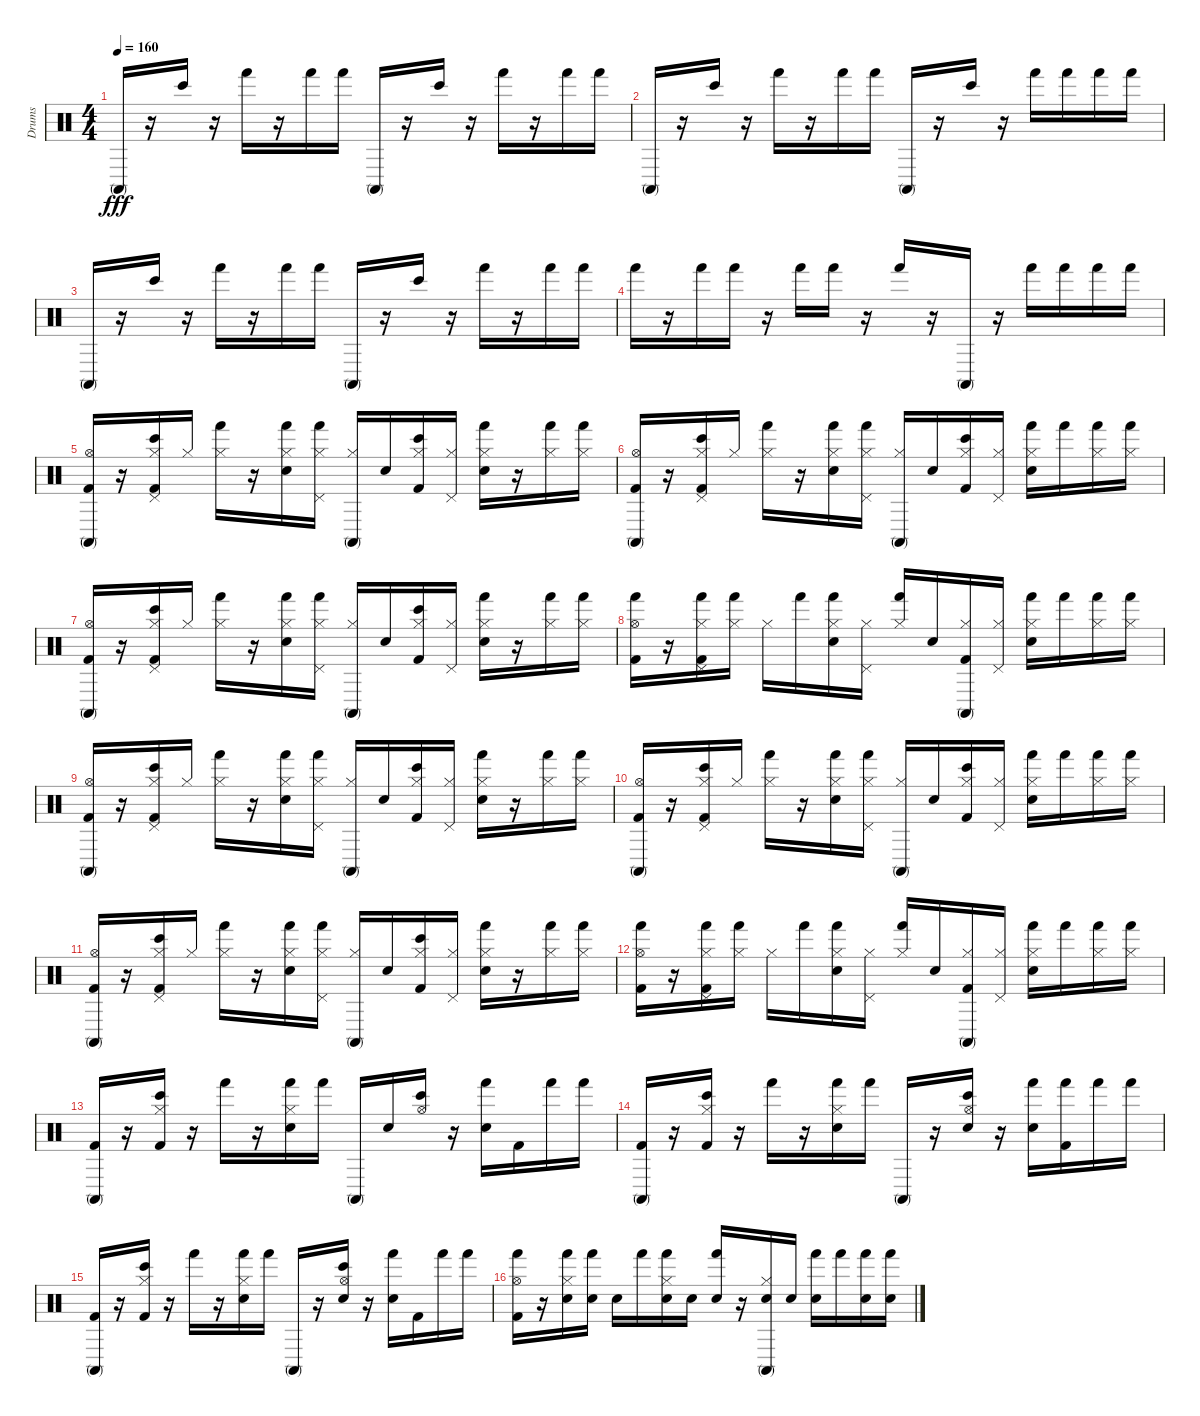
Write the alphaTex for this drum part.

\track ("Drums" "Drums") {instrument percussion}
\staff {score}
\articulation defaults
\ts (4 4)
\tempo 160
\clef neutral
\ks c "Conga high (mute)".16{dy fff}
r.16 "Bongo High (hit)".16 r.16 "Hand (hit)".16 r.16 "Hand (hit)".16 "Hand (hit)".16 "Conga high (mute)".16 r.16 "Bongo High (hit)".16 r.16 "Hand (hit)".16 r.16 "Hand (hit)".16 "Hand (hit)".16 |
"Conga high (mute)".16 r.16 "Bongo High (hit)".16 r.16 "Hand (hit)".16 r.16 "Hand (hit)".16 "Hand (hit)".16 "Conga high (mute)".16 r.16 "Bongo High (hit)".16 r.16 "Hand (hit)".16 "Hand (hit)".16 "Hand (hit)".16 "Hand (hit)".16 |
"Conga high (mute)".16 r.16 "Bongo High (hit)".16 r.16 "Hand (hit)".16 r.16 "Hand (hit)".16 "Hand (hit)".16 "Conga high (mute)".16 r.16 "Bongo High (hit)".16 r.16 "Hand (hit)".16 r.16 "Hand (hit)".16 "Hand (hit)".16 |
"Hand (hit)".16 r.16 "Hand (hit)".16 "Hand (hit)".16 r.16 "Hand (hit)".16 "Hand (hit)".16 r.16 "Hand (hit)".16 r.16 "Conga high (mute)".16 r.16 "Hand (hit)".16 "Hand (hit)".16 "Hand (hit)".16 "Hand (hit)".16 |
("Kick (hit) 2" "Conga high (mute)" "Hi-Hat (open)").16 r.16 ("Kick (hit) 2" "Pedal Hi-Hat (hit)" "Hi-Hat (closed)" "Bongo High (hit)").16 "Hi-Hat (closed)".16 ("Hand (hit)" "Hi-Hat (closed)").16 r.16 ("Electric Snare (hit)" "Hi-Hat (closed)" "Hand (hit)").16 ("Hi-Hat (closed)" "Pedal Hi-Hat (hit)" "Hand (hit)").16 ("Hi-Hat (closed)" "Conga high (mute)").16 "Electric Snare (hit)".16 ("Hi-Hat (closed)" "Kick (hit) 2" "Bongo High (hit)").16 ("Hi-Hat (closed)" "Pedal Hi-Hat (hit)").16 ("Hand (hit)" "Electric Snare (hit)" "Hi-Hat (closed)").16 r.16 ("Hand (hit)" "Hi-Hat (closed)").16 ("Hi-Hat (closed)" "Hand (hit)").16 |
("Conga high (mute)" "Kick (hit) 2" "Hi-Hat (open)").16 r.16 ("Hi-Hat (closed)" "Bongo High (hit)" "Kick (hit) 2" "Pedal Hi-Hat (hit)").16 "Hi-Hat (closed)".16 ("Hand (hit)" "Hi-Hat (closed)").16 r.16 ("Hi-Hat (closed)" "Hand (hit)" "Electric Snare (hit)").16 ("Pedal Hi-Hat (hit)" "Hi-Hat (closed)" "Hand (hit)").16 ("Hi-Hat (closed)" "Conga high (mute)").16 "Electric Snare (hit)".16 ("Kick (hit) 2" "Hi-Hat (closed)" "Bongo High (hit)").16 ("Hi-Hat (closed)" "Pedal Hi-Hat (hit)").16 ("Electric Snare (hit)" "Hand (hit)" "Hi-Hat (closed)").16 "Hand (hit)".16 ("Hand (hit)" "Hi-Hat (closed)").16 ("Hi-Hat (closed)" "Hand (hit)").16 |
("Hi-Hat (open)" "Conga high (mute)" "Kick (hit) 2").16 r.16 ("Bongo High (hit)" "Hi-Hat (closed)" "Pedal Hi-Hat (hit)" "Kick (hit) 2").16 "Hi-Hat (closed)".16 ("Hi-Hat (closed)" "Hand (hit)").16 r.16 ("Hand (hit)" "Electric Snare (hit)" "Hi-Hat (closed)").16 ("Pedal Hi-Hat (hit)" "Hi-Hat (closed)" "Hand (hit)").16 ("Conga high (mute)" "Hi-Hat (closed)").16 "Electric Snare (hit)".16 ("Bongo High (hit)" "Hi-Hat (closed)" "Kick (hit) 2").16 ("Hi-Hat (closed)" "Pedal Hi-Hat (hit)").16 ("Hand (hit)" "Hi-Hat (closed)" "Electric Snare (hit)").16 r.16 ("Hand (hit)" "Hi-Hat (closed)").16 ("Hi-Hat (closed)" "Hand (hit)").16 |
("Kick (hit) 2" "Hi-Hat (open)" "Hand (hit)").16 r.16 ("Pedal Hi-Hat (hit)" "Hand (hit)" "Kick (hit) 2" "Hi-Hat (closed)").16 ("Hand (hit)" "Hi-Hat (closed)").16 "Hi-Hat (closed)".16 "Hand (hit)".16 ("Electric Snare (hit)" "Hand (hit)" "Hi-Hat (closed)").16 ("Hi-Hat (closed)" "Pedal Hi-Hat (hit)").16 ("Hi-Hat (closed)" "Hand (hit)").16 "Electric Snare (hit)".16 ("Conga high (mute)" "Kick (hit) 2" "Hi-Hat (closed)").16 ("Hi-Hat (closed)" "Pedal Hi-Hat (hit)").16 ("Hi-Hat (closed)" "Electric Snare (hit)" "Hand (hit)").16 "Hand (hit)".16 ("Hand (hit)" "Hi-Hat (closed)").16 ("Hi-Hat (closed)" "Hand (hit)").16 |
("Conga high (mute)" "Hi-Hat (open)" "Kick (hit) 2").16 r.16 ("Kick (hit) 2" "Bongo High (hit)" "Hi-Hat (closed)" "Pedal Hi-Hat (hit)").16 "Hi-Hat (closed)".16 ("Hi-Hat (closed)" "Hand (hit)").16 r.16 ("Hi-Hat (closed)" "Electric Snare (hit)" "Hand (hit)").16 ("Hi-Hat (closed)" "Pedal Hi-Hat (hit)" "Hand (hit)").16 ("Conga high (mute)" "Hi-Hat (closed)").16 "Electric Snare (hit)".16 ("Hi-Hat (closed)" "Kick (hit) 2" "Bongo High (hit)").16 ("Hi-Hat (closed)" "Pedal Hi-Hat (hit)").16 ("Electric Snare (hit)" "Hand (hit)" "Hi-Hat (closed)").16 r.16 ("Hand (hit)" "Hi-Hat (closed)").16 ("Hand (hit)" "Hi-Hat (closed)").16 |
("Hi-Hat (open)" "Conga high (mute)" "Kick (hit) 2").16 r.16 ("Bongo High (hit)" "Pedal Hi-Hat (hit)" "Kick (hit) 2" "Hi-Hat (closed)").16 "Hi-Hat (closed)".16 ("Hand (hit)" "Hi-Hat (closed)").16 r.16 ("Electric Snare (hit)" "Hand (hit)" "Hi-Hat (closed)").16 ("Pedal Hi-Hat (hit)" "Hand (hit)" "Hi-Hat (closed)").16 ("Hi-Hat (closed)" "Conga high (mute)").16 "Electric Snare (hit)".16 ("Kick (hit) 2" "Hi-Hat (closed)" "Bongo High (hit)").16 ("Pedal Hi-Hat (hit)" "Hi-Hat (closed)").16 ("Hand (hit)" "Electric Snare (hit)" "Hi-Hat (closed)").16 "Hand (hit)".16 ("Hand (hit)" "Hi-Hat (closed)").16 ("Hand (hit)" "Hi-Hat (closed)").16 |
("Conga high (mute)" "Hi-Hat (open)" "Kick (hit) 2").16 r.16 ("Hi-Hat (closed)" "Kick (hit) 2" "Bongo High (hit)" "Pedal Hi-Hat (hit)").16 "Hi-Hat (closed)".16 ("Hand (hit)" "Hi-Hat (closed)").16 r.16 ("Hand (hit)" "Electric Snare (hit)" "Hi-Hat (closed)").16 ("Pedal Hi-Hat (hit)" "Hi-Hat (closed)" "Hand (hit)").16 ("Conga high (mute)" "Hi-Hat (closed)").16 "Electric Snare (hit)".16 ("Kick (hit) 2" "Bongo High (hit)" "Hi-Hat (closed)").16 ("Hi-Hat (closed)" "Pedal Hi-Hat (hit)").16 ("Hand (hit)" "Electric Snare (hit)" "Hi-Hat (closed)").16 r.16 ("Hand (hit)" "Hi-Hat (closed)").16 ("Hi-Hat (closed)" "Hand (hit)").16 |
("Hand (hit)" "Kick (hit) 2" "Hi-Hat (open)").16 r.16 ("Hand (hit)" "Hi-Hat (closed)" "Kick (hit) 2" "Pedal Hi-Hat (hit)").16 ("Hi-Hat (closed)" "Hand (hit)").16 "Hi-Hat (closed)".16 "Hand (hit)".16 ("Hi-Hat (closed)" "Hand (hit)" "Electric Snare (hit)").16 ("Pedal Hi-Hat (hit)" "Hi-Hat (closed)").16 ("Hand (hit)" "Hi-Hat (closed)").16 "Electric Snare (hit)".16 ("Conga high (mute)" "Hi-Hat (closed)" "Kick (hit) 2").16 ("Hi-Hat (closed)" "Pedal Hi-Hat (hit)").16 ("Hi-Hat (closed)" "Hand (hit)" "Electric Snare (hit)").16 "Hand (hit)".16 ("Hi-Hat (closed)" "Hand (hit)").16 ("Hi-Hat (closed)" "Hand (hit)").16 |
("Kick (hit) 2" "Conga high (mute)").16 r.16 ("Bongo High (hit)" "Kick (hit) 2" "Hi-Hat (closed)").16 r.16 "Hand (hit)".16 r.16 ("Electric Snare (hit)" "Hand (hit)" "Hi-Hat (closed)").16 "Hand (hit)".16 "Conga high (mute)".16 "Electric Snare (hit)".16 ("Hi-Hat (open)" "Bongo High (hit)").16 r.16 ("Hand (hit)" "Electric Snare (hit)").16 "Kick (hit) 2".16 "Hand (hit)".16 "Hand (hit)".16 |
("Kick (hit) 2" "Conga high (mute)").16 r.16 ("Hi-Hat (closed)" "Bongo High (hit)" "Kick (hit) 2").16 r.16 "Hand (hit)".16 r.16 ("Electric Snare (hit)" "Hand (hit)" "Hi-Hat (closed)").16 "Hand (hit)".16 "Conga high (mute)".16 r.16 ("Electric Snare (hit)" "Bongo High (hit)" "Hi-Hat (open)").16 r.16 ("Electric Snare (hit)" "Hand (hit)").16 ("Hand (hit)" "Kick (hit) 2").16 "Hand (hit)".16 "Hand (hit)".16 |
("Conga high (mute)" "Kick (hit) 2").16 r.16 ("Bongo High (hit)" "Hi-Hat (closed)" "Kick (hit) 2").16 r.16 "Hand (hit)".16 r.16 ("Hi-Hat (closed)" "Electric Snare (hit)" "Hand (hit)").16 "Hand (hit)".16 "Conga high (mute)".16 r.16 ("Hi-Hat (open)" "Bongo High (hit)" "Electric Snare (hit)").16 r.16 ("Hand (hit)" "Electric Snare (hit)").16 "Kick (hit) 2".16 "Hand (hit)".16 "Hand (hit)".16 |
("Kick (hit) 2" "Hand (hit)" "Hi-Hat (open)").16 r.16 ("Electric Snare (hit)" "Hi-Hat (closed)" "Hand (hit)").16 ("Hand (hit)" "Electric Snare (hit)").16 "Electric Snare (hit)".16 "Hand (hit)".16 ("Hi-Hat (closed)" "Electric Snare (hit)" "Hand (hit)").16 "Electric Snare (hit)".16 ("Hand (hit)" "Electric Snare (hit)").16 r.16 ("Conga high (mute)" "Electric Snare (hit)" "Hi-Hat (closed)").16 "Electric Snare (hit)".16 ("Electric Snare (hit)" "Hand (hit)").16 "Hand (hit)".16 ("Hand (hit)" "Electric Snare (hit)").16 ("Hand (hit)" "Electric Snare (hit)").16
